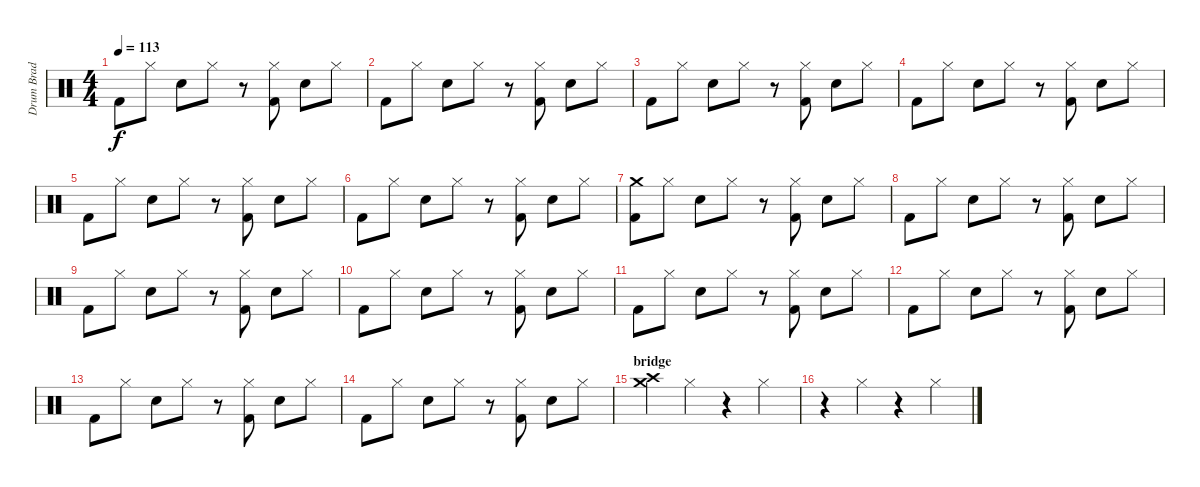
\track ("Drum Brad Wilk" "Drum Brad ") {instrument percussion}
\staff {score}
\articulation defaults
\ts (4 4)
\tempo 113
\clef neutral
\ks c "Kick (hit) 2".8{dy f} "Hi-Hat (closed)".8 "Snare (hit) 2".8 "Hi-Hat (closed)".8
r.8 ("Hi-Hat (closed)" "Kick (hit) 2").8 "Snare (hit) 2".8 "Hi-Hat (closed)".8 |
"Kick (hit) 2".8 "Hi-Hat (closed)".8 "Snare (hit) 2".8 "Hi-Hat (closed)".8 r.8 ("Hi-Hat (closed)" "Kick (hit) 2").8 "Snare (hit) 2".8 "Hi-Hat (closed)".8 |
"Kick (hit) 2".8 "Hi-Hat (closed)".8 "Snare (hit) 2".8 "Hi-Hat (closed)".8 r.8 ("Hi-Hat (closed)" "Kick (hit) 2").8 "Snare (hit) 2".8 "Hi-Hat (closed)".8 |
"Kick (hit) 2".8 "Hi-Hat (closed)".8 "Snare (hit) 2".8 "Hi-Hat (closed)".8 r.8 ("Hi-Hat (closed)" "Kick (hit) 2").8 "Snare (hit) 2".8 "Hi-Hat (closed)".8 |
"Kick (hit) 2".8 "Hi-Hat (closed)".8 "Snare (hit) 2".8 "Hi-Hat (closed)".8 r.8 ("Hi-Hat (closed)" "Kick (hit) 2").8 "Snare (hit) 2".8 "Hi-Hat (closed)".8 |
"Kick (hit) 2".8 "Hi-Hat (closed)".8 "Snare (hit) 2".8 "Hi-Hat (closed)".8 r.8 ("Hi-Hat (closed)" "Kick (hit) 2").8 "Snare (hit) 2".8 "Hi-Hat (closed)".8 |
("Crash medium (hit)" "Kick (hit) 2").8 "Hi-Hat (closed)".8 "Snare (hit) 2".8 "Hi-Hat (closed)".8 r.8 ("Hi-Hat (closed)" "Kick (hit) 2").8 "Snare (hit) 2".8 "Hi-Hat (closed)".8 |
"Kick (hit) 2".8 "Hi-Hat (closed)".8 "Snare (hit) 2".8 "Hi-Hat (closed)".8 r.8 ("Hi-Hat (closed)" "Kick (hit) 2").8 "Snare (hit) 2".8 "Hi-Hat (closed)".8 |
"Kick (hit) 2".8 "Hi-Hat (closed)".8 "Snare (hit) 2".8 "Hi-Hat (closed)".8 r.8 ("Hi-Hat (closed)" "Kick (hit) 2").8 "Snare (hit) 2".8 "Hi-Hat (closed)".8 |
"Kick (hit) 2".8 "Hi-Hat (closed)".8 "Snare (hit) 2".8 "Hi-Hat (closed)".8 r.8 ("Hi-Hat (closed)" "Kick (hit) 2").8 "Snare (hit) 2".8 "Hi-Hat (closed)".8 |
"Kick (hit) 2".8 "Hi-Hat (closed)".8 "Snare (hit) 2".8 "Hi-Hat (closed)".8 r.8 ("Hi-Hat (closed)" "Kick (hit) 2").8 "Snare (hit) 2".8 "Hi-Hat (closed)".8 |
"Kick (hit) 2".8 "Hi-Hat (closed)".8 "Snare (hit) 2".8 "Hi-Hat (closed)".8 r.8 ("Hi-Hat (closed)" "Kick (hit) 2").8 "Snare (hit) 2".8 "Hi-Hat (closed)".8 |
"Kick (hit) 2".8 "Hi-Hat (closed)".8 "Snare (hit) 2".8 "Hi-Hat (closed)".8 r.8 ("Hi-Hat (closed)" "Kick (hit) 2").8 "Snare (hit) 2".8 "Hi-Hat (closed)".8 |
"Kick (hit) 2".8 "Hi-Hat (closed)".8 "Snare (hit) 2".8 "Hi-Hat (closed)".8 r.8 ("Hi-Hat (closed)" "Kick (hit) 2").8 "Snare (hit) 2".8 "Hi-Hat (closed)".8 |
\section ("" "bridge")
("Crash high (hit)" "Crash medium (hit)").4 "Hi-Hat (closed)".4 r.4 "Hi-Hat (closed)".4 |
r.4 "Hi-Hat (closed)".4 r.4 "Hi-Hat (closed)".4
